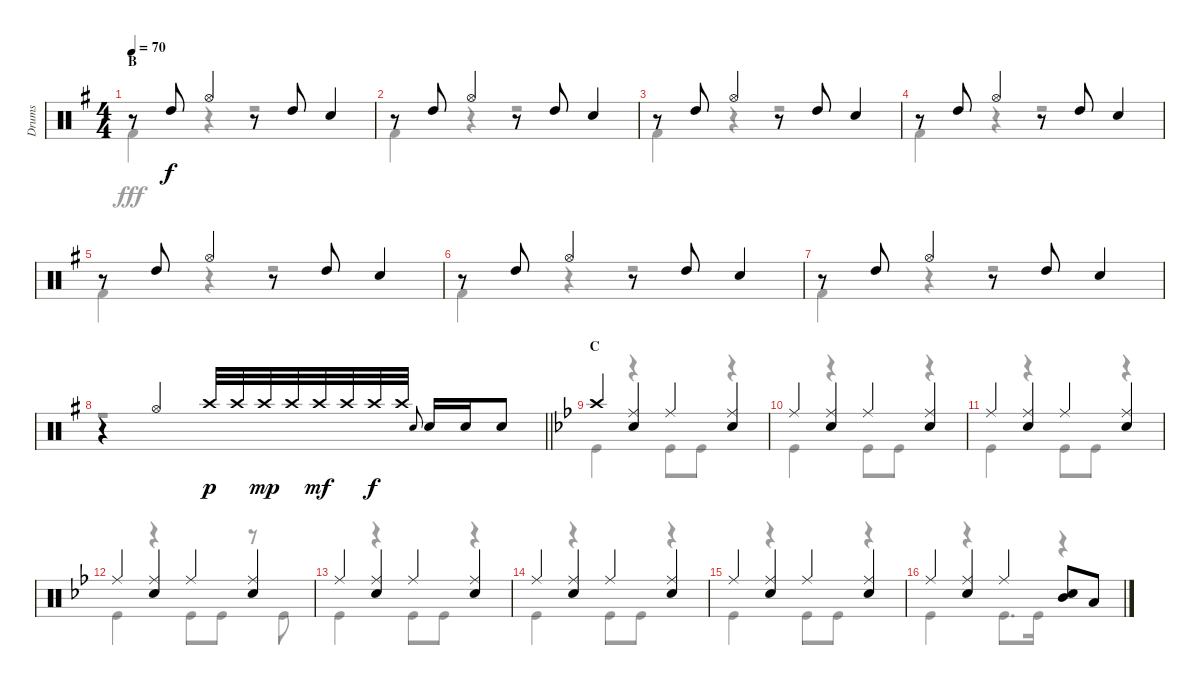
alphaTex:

\track ("Drums" "Drums") {instrument percussion}
\staff {score}
\articulation defaults
\voice
\ts (4 4)
\section ("" "B")
\tempo 70
\clef neutral
\ks g
r.8{dy f} "High Tom (hit)".8 "Hi-Hat (open)".4 r.8 "High Tom (hit)".8 "Snare (hit) 2".4 |
r.8 "High Tom (hit)".8 "Hi-Hat (open)".4 r.8 "High Tom (hit)".8 "Snare (hit) 2".4 |
r.8 "High Tom (hit)".8 "Hi-Hat (open)".4 r.8 "High Tom (hit)".8 "Snare (hit) 2".4 |
r.8 "High Tom (hit)".8 "Hi-Hat (open)".4 r.8 "High Tom (hit)".8 "Snare (hit) 2".4 |
r.8 "High Tom (hit)".8 "Hi-Hat (open)".4 r.8 "High Tom (hit)".8 "Snare (hit) 2".4 |
r.8 "High Tom (hit)".8 "Hi-Hat (open)".4 r.8 "High Tom (hit)".8 "Snare (hit) 2".4 |
r.8 "High Tom (hit)".8 "Hi-Hat (open)".4 r.8 "High Tom (hit)".8 "Snare (hit) 2".4 |
\barLineRight lightlight
r.4 "Hi-Hat (open)".4 "Crash high (hit)".32{dy p} "Crash high (hit)".32 "Crash high (hit)".32{dy mp} "Crash high (hit)".32 "Crash high (hit)".32{dy mf} "Crash high (hit)".32 "Crash high (hit)".32{dy f} "Crash high (hit)".32 "Snare (hit) 2".8{gr onbeat} "Snare (hit) 2".16 "Snare (hit) 2".16 "Snare (hit) 2".8 |
\section ("" "C")
\ks bb "Crash high (hit)".4
("Ride (middle)" "Snare (hit) 2").4 "Ride (middle)".4 ("Ride (middle)" "Snare (hit) 2").4 |
"Ride (middle)".4 ("Ride (middle)" "Snare (hit) 2").4 "Ride (middle)".4 ("Ride (middle)" "Snare (hit) 2").4 |
"Ride (middle)".4 ("Ride (middle)" "Snare (hit) 2").4 "Ride (middle)".4 ("Ride (middle)" "Snare (hit) 2").4 |
"Ride (middle)".4 ("Ride (middle)" "Snare (hit) 2").4 "Ride (middle)".4 ("Ride (middle)" "Snare (hit) 2").4 |
"Ride (middle)".4 ("Ride (middle)" "Snare (hit) 2").4 "Ride (middle)".4 ("Ride (middle)" "Snare (hit) 2").4 |
"Ride (middle)".4 ("Ride (middle)" "Snare (hit) 2").4 "Ride (middle)".4 ("Ride (middle)" "Snare (hit) 2").4 |
"Ride (middle)".4 ("Ride (middle)" "Snare (hit) 2").4 "Ride (middle)".4 ("Ride (middle)" "Snare (hit) 2").4 |
"Ride (middle)".4 ("Ride (middle)" "Snare (hit) 2").4 "Ride (middle)".4 ("Mid Tom (hit)" "Snare (hit) 2").8 "Low Tom (hit)".8
\voice
\clef neutral
\ottava regular
\simile none
\ks g "Kick (hit) 2".4{dy fff}
r.4 r.2 |
"Kick (hit) 2".4 r.4 r.2 |
"Kick (hit) 2".4 r.4 r.2 |
"Kick (hit) 2".4 r.4 r.2 |
"Kick (hit) 2".4 r.4 r.2 |
"Kick (hit) 2".4 r.4 r.2 |
"Kick (hit) 2".4 r.4 r.2 |
\barLineRight lightlight
r.1 |
\ks bb "Kick (hit)".4
r.4 "Kick (hit)".8 "Kick (hit)".8 r.4 |
"Kick (hit)".4 r.4 "Kick (hit)".8 "Kick (hit)".8 r.4 |
"Kick (hit)".4 r.4 "Kick (hit)".8 "Kick (hit)".8 r.4 |
"Kick (hit)".4 r.4 "Kick (hit)".8 "Kick (hit)".8 r.8 "Kick (hit)".8 |
"Kick (hit)".4 r.4 "Kick (hit)".8 "Kick (hit)".8 r.4 |
"Kick (hit)".4 r.4 "Kick (hit)".8 "Kick (hit)".8 r.4 |
"Kick (hit)".4 r.4 "Kick (hit)".8 "Kick (hit)".8 r.4 |
"Kick (hit)".4 r.4 "Kick (hit)".8{d} "Kick (hit)".16 r.4
